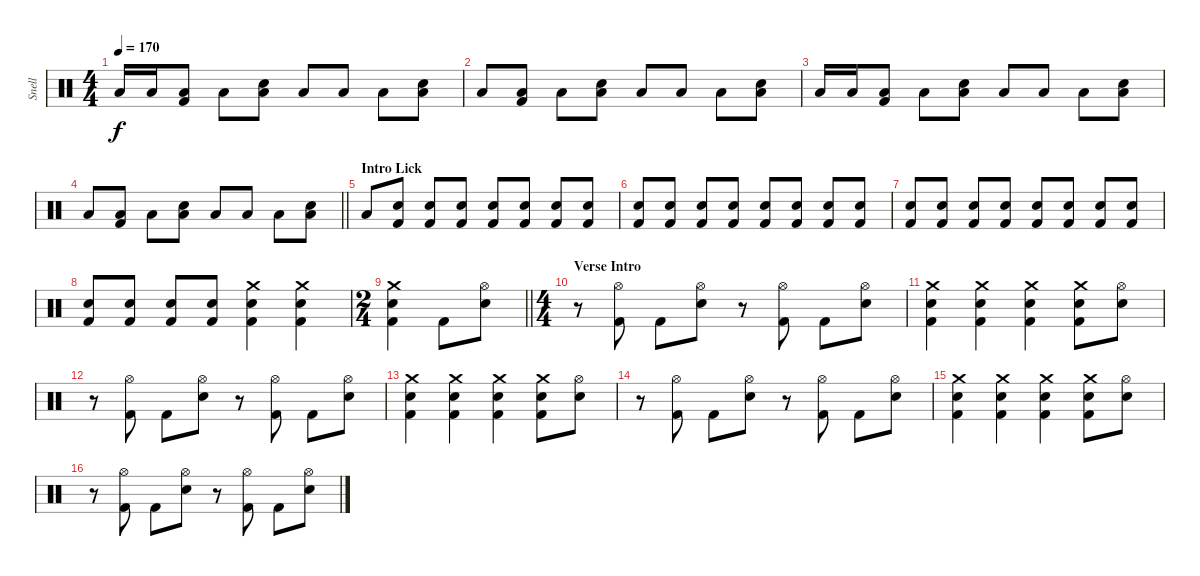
\track ("Snell" "Snell") {instrument percussion}
\staff {score}
\articulation defaults
\ts (4 4)
\tempo 170
\clef neutral
\ks c "Low Tom (hit)".16{dy f} "Low Tom (hit)".16
("Low Tom (hit)" "Kick (hit) 2").8 "Low Tom (hit)".8 ("Electric Snare (hit)" "Low Tom (hit)").8 "Low Tom (hit)".8 "Low Tom (hit)".8 "Low Tom (hit)".8 ("Electric Snare (hit)" "Low Tom (hit)").8 |
"Low Tom (hit)".8 ("Low Tom (hit)" "Kick (hit) 2").8 "Low Tom (hit)".8 ("Electric Snare (hit)" "Low Tom (hit)").8 "Low Tom (hit)".8 "Low Tom (hit)".8 "Low Tom (hit)".8 ("Electric Snare (hit)" "Low Tom (hit)").8 |
"Low Tom (hit)".16 "Low Tom (hit)".16 ("Low Tom (hit)" "Kick (hit) 2").8 "Low Tom (hit)".8 ("Electric Snare (hit)" "Low Tom (hit)").8 "Low Tom (hit)".8 "Low Tom (hit)".8 "Low Tom (hit)".8 ("Electric Snare (hit)" "Low Tom (hit)").8 |
\barLineRight lightlight "Low Tom (hit)".8
("Low Tom (hit)" "Kick (hit) 2").8 "Low Tom (hit)".8 ("Electric Snare (hit)" "Low Tom (hit)").8 "Low Tom (hit)".8 "Low Tom (hit)".8 "Low Tom (hit)".8 ("Electric Snare (hit)" "Low Tom (hit)").8 |
\section ("" "Intro Lick")
"Low Tom (hit)".8 ("Electric Snare (hit)" "Kick (hit) 2").8 ("Electric Snare (hit)" "Kick (hit) 2").8 ("Electric Snare (hit)" "Kick (hit) 2").8 ("Electric Snare (hit)" "Kick (hit) 2").8 ("Electric Snare (hit)" "Kick (hit) 2").8 ("Electric Snare (hit)" "Kick (hit) 2").8 ("Electric Snare (hit)" "Kick (hit) 2").8 |
("Electric Snare (hit)" "Kick (hit) 2").8 ("Electric Snare (hit)" "Kick (hit) 2").8 ("Electric Snare (hit)" "Kick (hit) 2").8 ("Electric Snare (hit)" "Kick (hit) 2").8 ("Electric Snare (hit)" "Kick (hit) 2").8 ("Electric Snare (hit)" "Kick (hit) 2").8 ("Electric Snare (hit)" "Kick (hit) 2").8 ("Electric Snare (hit)" "Kick (hit) 2").8 |
("Electric Snare (hit)" "Kick (hit) 2").8 ("Electric Snare (hit)" "Kick (hit) 2").8 ("Electric Snare (hit)" "Kick (hit) 2").8 ("Electric Snare (hit)" "Kick (hit) 2").8 ("Electric Snare (hit)" "Kick (hit) 2").8 ("Electric Snare (hit)" "Kick (hit) 2").8 ("Electric Snare (hit)" "Kick (hit) 2").8 ("Electric Snare (hit)" "Kick (hit) 2").8 |
("Electric Snare (hit)" "Kick (hit) 2").8 ("Electric Snare (hit)" "Kick (hit) 2").8 ("Electric Snare (hit)" "Kick (hit) 2").8 ("Electric Snare (hit)" "Kick (hit) 2").8 ("Crash medium (hit)" "Electric Snare (hit)" "Kick (hit) 2").4 ("Crash medium (hit)" "Electric Snare (hit)" "Kick (hit) 2").4 |
\ts (2 4)
\barLineRight lightlight
("Crash medium (hit)" "Electric Snare (hit)" "Kick (hit) 2").4 "Kick (hit) 2".8 ("Hi-Hat (open)" "Electric Snare (hit)").8 |
\ts (4 4)
\section ("" "Verse Intro")
r.8 ("Hi-Hat (open)" "Kick (hit) 2").8 "Kick (hit) 2".8 ("Hi-Hat (open)" "Electric Snare (hit)").8 r.8 ("Hi-Hat (open)" "Kick (hit) 2").8 "Kick (hit) 2".8 ("Hi-Hat (open)" "Electric Snare (hit)").8 |
("Crash medium (hit)" "Electric Snare (hit)" "Kick (hit) 2").4 ("Crash medium (hit)" "Electric Snare (hit)" "Kick (hit) 2").4 ("Crash medium (hit)" "Electric Snare (hit)" "Kick (hit) 2").4 ("Crash medium (hit)" "Electric Snare (hit)" "Kick (hit) 2").8 ("Hi-Hat (open)" "Electric Snare (hit)").8 |
r.8 ("Hi-Hat (open)" "Kick (hit) 2").8 "Kick (hit) 2".8 ("Hi-Hat (open)" "Electric Snare (hit)").8 r.8 ("Hi-Hat (open)" "Kick (hit) 2").8 "Kick (hit) 2".8 ("Hi-Hat (open)" "Electric Snare (hit)").8 |
("Crash medium (hit)" "Electric Snare (hit)" "Kick (hit) 2").4 ("Crash medium (hit)" "Electric Snare (hit)" "Kick (hit) 2").4 ("Crash medium (hit)" "Electric Snare (hit)" "Kick (hit) 2").4 ("Crash medium (hit)" "Electric Snare (hit)" "Kick (hit) 2").8 ("Hi-Hat (open)" "Electric Snare (hit)").8 |
r.8 ("Hi-Hat (open)" "Kick (hit) 2").8 "Kick (hit) 2".8 ("Hi-Hat (open)" "Electric Snare (hit)").8 r.8 ("Hi-Hat (open)" "Kick (hit) 2").8 "Kick (hit) 2".8 ("Hi-Hat (open)" "Electric Snare (hit)").8 |
("Crash medium (hit)" "Electric Snare (hit)" "Kick (hit) 2").4 ("Crash medium (hit)" "Electric Snare (hit)" "Kick (hit) 2").4 ("Crash medium (hit)" "Electric Snare (hit)" "Kick (hit) 2").4 ("Crash medium (hit)" "Electric Snare (hit)" "Kick (hit) 2").8 ("Hi-Hat (open)" "Electric Snare (hit)").8 |
r.8 ("Hi-Hat (open)" "Kick (hit) 2").8 "Kick (hit) 2".8 ("Hi-Hat (open)" "Electric Snare (hit)").8 r.8 ("Hi-Hat (open)" "Kick (hit) 2").8 "Kick (hit) 2".8 ("Hi-Hat (open)" "Electric Snare (hit)").8
